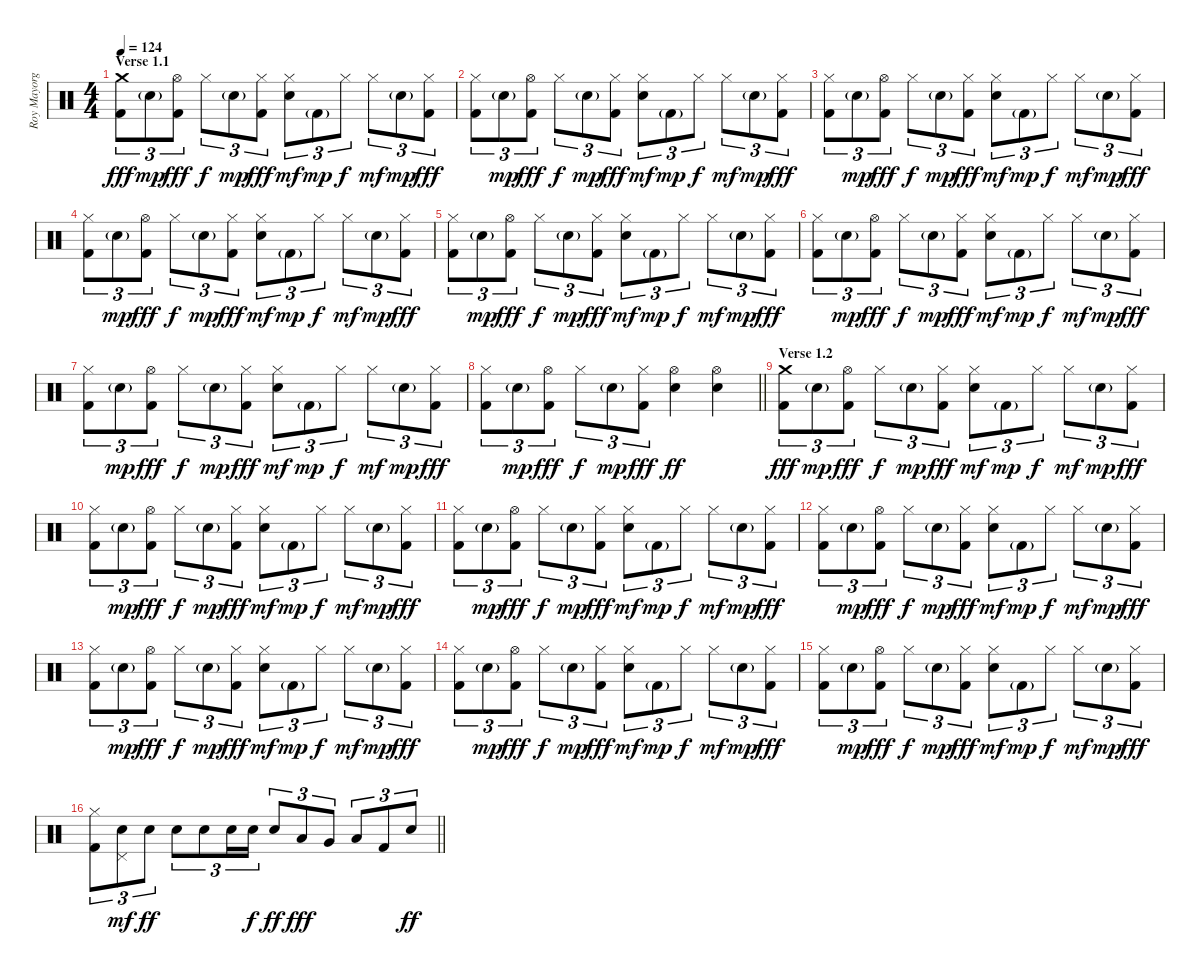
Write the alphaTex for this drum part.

\track ("Roy Mayorga" "Roy Mayorg") {instrument percussion}
\staff {score}
\articulation defaults
\ts (4 4)
\section ("" "Verse 1.1")
\tempo 124
\clef neutral
\ks c
("Crash medium (hit)" "Kick (hit) 2").8{tu (3 2) dy fff} "Electric Snare (hit)"{g}.8{tu (3 2) dy mp} ("Hi-Hat (open)" "Kick (hit) 2").8{tu (3 2) dy fff} "Hi-Hat (closed)".8{tu (3 2) dy f} "Electric Snare (hit)"{g}.8{tu (3 2) dy mp} ("Hi-Hat (closed)" "Kick (hit) 2").8{tu (3 2) dy fff} ("Hi-Hat (closed)" "Electric Snare (hit)").8{tu (3 2) dy mf} "Kick (hit) 2"{g}.8{tu (3 2) dy mp} "Hi-Hat (closed)".8{tu (3 2) dy f} "Hi-Hat (closed)".8{tu (3 2) dy mf} "Electric Snare (hit)"{g}.8{tu (3 2) dy mp} ("Hi-Hat (closed)" "Kick (hit) 2").8{tu (3 2) dy fff} |
("Hi-Hat (closed)" "Kick (hit) 2").8{tu (3 2)} "Electric Snare (hit)"{g}.8{tu (3 2) dy mp} ("Hi-Hat (open)" "Kick (hit) 2").8{tu (3 2) dy fff} "Hi-Hat (closed)".8{tu (3 2) dy f} "Electric Snare (hit)"{g}.8{tu (3 2) dy mp} ("Hi-Hat (closed)" "Kick (hit) 2").8{tu (3 2) dy fff} ("Hi-Hat (closed)" "Electric Snare (hit)").8{tu (3 2) dy mf} "Kick (hit) 2"{g}.8{tu (3 2) dy mp} "Hi-Hat (closed)".8{tu (3 2) dy f} "Hi-Hat (closed)".8{tu (3 2) dy mf} "Electric Snare (hit)"{g}.8{tu (3 2) dy mp} ("Hi-Hat (closed)" "Kick (hit) 2").8{tu (3 2) dy fff} |
("Hi-Hat (closed)" "Kick (hit) 2").8{tu (3 2)} "Electric Snare (hit)"{g}.8{tu (3 2) dy mp} ("Hi-Hat (open)" "Kick (hit) 2").8{tu (3 2) dy fff} "Hi-Hat (closed)".8{tu (3 2) dy f} "Electric Snare (hit)"{g}.8{tu (3 2) dy mp} ("Hi-Hat (closed)" "Kick (hit) 2").8{tu (3 2) dy fff} ("Hi-Hat (closed)" "Electric Snare (hit)").8{tu (3 2) dy mf} "Kick (hit) 2"{g}.8{tu (3 2) dy mp} "Hi-Hat (closed)".8{tu (3 2) dy f} "Hi-Hat (closed)".8{tu (3 2) dy mf} "Electric Snare (hit)"{g}.8{tu (3 2) dy mp} ("Hi-Hat (closed)" "Kick (hit) 2").8{tu (3 2) dy fff} |
("Hi-Hat (closed)" "Kick (hit) 2").8{tu (3 2)} "Electric Snare (hit)"{g}.8{tu (3 2) dy mp} ("Hi-Hat (open)" "Kick (hit) 2").8{tu (3 2) dy fff} "Hi-Hat (closed)".8{tu (3 2) dy f} "Electric Snare (hit)"{g}.8{tu (3 2) dy mp} ("Hi-Hat (closed)" "Kick (hit) 2").8{tu (3 2) dy fff} ("Hi-Hat (closed)" "Electric Snare (hit)").8{tu (3 2) dy mf} "Kick (hit) 2"{g}.8{tu (3 2) dy mp} "Hi-Hat (closed)".8{tu (3 2) dy f} "Hi-Hat (closed)".8{tu (3 2) dy mf} "Electric Snare (hit)"{g}.8{tu (3 2) dy mp} ("Hi-Hat (closed)" "Kick (hit) 2").8{tu (3 2) dy fff} |
("Hi-Hat (closed)" "Kick (hit) 2").8{tu (3 2)} "Electric Snare (hit)"{g}.8{tu (3 2) dy mp} ("Hi-Hat (open)" "Kick (hit) 2").8{tu (3 2) dy fff} "Hi-Hat (closed)".8{tu (3 2) dy f} "Electric Snare (hit)"{g}.8{tu (3 2) dy mp} ("Hi-Hat (closed)" "Kick (hit) 2").8{tu (3 2) dy fff} ("Hi-Hat (closed)" "Electric Snare (hit)").8{tu (3 2) dy mf} "Kick (hit) 2"{g}.8{tu (3 2) dy mp} "Hi-Hat (closed)".8{tu (3 2) dy f} "Hi-Hat (closed)".8{tu (3 2) dy mf} "Electric Snare (hit)"{g}.8{tu (3 2) dy mp} ("Hi-Hat (closed)" "Kick (hit) 2").8{tu (3 2) dy fff} |
("Hi-Hat (closed)" "Kick (hit) 2").8{tu (3 2)} "Electric Snare (hit)"{g}.8{tu (3 2) dy mp} ("Hi-Hat (open)" "Kick (hit) 2").8{tu (3 2) dy fff} "Hi-Hat (closed)".8{tu (3 2) dy f} "Electric Snare (hit)"{g}.8{tu (3 2) dy mp} ("Hi-Hat (closed)" "Kick (hit) 2").8{tu (3 2) dy fff} ("Hi-Hat (closed)" "Electric Snare (hit)").8{tu (3 2) dy mf} "Kick (hit) 2"{g}.8{tu (3 2) dy mp} "Hi-Hat (closed)".8{tu (3 2) dy f} "Hi-Hat (closed)".8{tu (3 2) dy mf} "Electric Snare (hit)"{g}.8{tu (3 2) dy mp} ("Hi-Hat (closed)" "Kick (hit) 2").8{tu (3 2) dy fff} |
("Hi-Hat (closed)" "Kick (hit) 2").8{tu (3 2)} "Electric Snare (hit)"{g}.8{tu (3 2) dy mp} ("Hi-Hat (open)" "Kick (hit) 2").8{tu (3 2) dy fff} "Hi-Hat (closed)".8{tu (3 2) dy f} "Electric Snare (hit)"{g}.8{tu (3 2) dy mp} ("Hi-Hat (closed)" "Kick (hit) 2").8{tu (3 2) dy fff} ("Hi-Hat (closed)" "Electric Snare (hit)").8{tu (3 2) dy mf} "Kick (hit) 2"{g}.8{tu (3 2) dy mp} "Hi-Hat (closed)".8{tu (3 2) dy f} "Hi-Hat (closed)".8{tu (3 2) dy mf} "Electric Snare (hit)"{g}.8{tu (3 2) dy mp} ("Hi-Hat (closed)" "Kick (hit) 2").8{tu (3 2) dy fff} |
\barLineRight lightlight
("Hi-Hat (closed)" "Kick (hit) 2").8{tu (3 2)} "Electric Snare (hit)"{g}.8{tu (3 2) dy mp} ("Hi-Hat (open)" "Kick (hit) 2").8{tu (3 2) dy fff} "Hi-Hat (closed)".8{tu (3 2) dy f} "Electric Snare (hit)"{g}.8{tu (3 2) dy mp} ("Hi-Hat (closed)" "Kick (hit) 2").8{tu (3 2) dy fff} ("Hi-Hat (open)" "Electric Snare (hit)").4{dy ff} ("Hi-Hat (open)" "Electric Snare (hit)").4 |
\section ("" "Verse 1.2")
("Crash medium (hit)" "Kick (hit) 2").8{tu (3 2) dy fff} "Electric Snare (hit)"{g}.8{tu (3 2) dy mp} ("Hi-Hat (open)" "Kick (hit) 2").8{tu (3 2) dy fff} "Hi-Hat (closed)".8{tu (3 2) dy f} "Electric Snare (hit)"{g}.8{tu (3 2) dy mp} ("Hi-Hat (closed)" "Kick (hit) 2").8{tu (3 2) dy fff} ("Hi-Hat (closed)" "Electric Snare (hit)").8{tu (3 2) dy mf} "Kick (hit) 2"{g}.8{tu (3 2) dy mp} "Hi-Hat (closed)".8{tu (3 2) dy f} "Hi-Hat (closed)".8{tu (3 2) dy mf} "Electric Snare (hit)"{g}.8{tu (3 2) dy mp} ("Hi-Hat (closed)" "Kick (hit) 2").8{tu (3 2) dy fff} |
("Hi-Hat (closed)" "Kick (hit) 2").8{tu (3 2)} "Electric Snare (hit)"{g}.8{tu (3 2) dy mp} ("Hi-Hat (open)" "Kick (hit) 2").8{tu (3 2) dy fff} "Hi-Hat (closed)".8{tu (3 2) dy f} "Electric Snare (hit)"{g}.8{tu (3 2) dy mp} ("Hi-Hat (closed)" "Kick (hit) 2").8{tu (3 2) dy fff} ("Hi-Hat (closed)" "Electric Snare (hit)").8{tu (3 2) dy mf} "Kick (hit) 2"{g}.8{tu (3 2) dy mp} "Hi-Hat (closed)".8{tu (3 2) dy f} "Hi-Hat (closed)".8{tu (3 2) dy mf} "Electric Snare (hit)"{g}.8{tu (3 2) dy mp} ("Hi-Hat (closed)" "Kick (hit) 2").8{tu (3 2) dy fff} |
("Hi-Hat (closed)" "Kick (hit) 2").8{tu (3 2)} "Electric Snare (hit)"{g}.8{tu (3 2) dy mp} ("Hi-Hat (open)" "Kick (hit) 2").8{tu (3 2) dy fff} "Hi-Hat (closed)".8{tu (3 2) dy f} "Electric Snare (hit)"{g}.8{tu (3 2) dy mp} ("Hi-Hat (closed)" "Kick (hit) 2").8{tu (3 2) dy fff} ("Hi-Hat (closed)" "Electric Snare (hit)").8{tu (3 2) dy mf} "Kick (hit) 2"{g}.8{tu (3 2) dy mp} "Hi-Hat (closed)".8{tu (3 2) dy f} "Hi-Hat (closed)".8{tu (3 2) dy mf} "Electric Snare (hit)"{g}.8{tu (3 2) dy mp} ("Hi-Hat (closed)" "Kick (hit) 2").8{tu (3 2) dy fff} |
("Hi-Hat (closed)" "Kick (hit) 2").8{tu (3 2)} "Electric Snare (hit)"{g}.8{tu (3 2) dy mp} ("Hi-Hat (open)" "Kick (hit) 2").8{tu (3 2) dy fff} "Hi-Hat (closed)".8{tu (3 2) dy f} "Electric Snare (hit)"{g}.8{tu (3 2) dy mp} ("Hi-Hat (closed)" "Kick (hit) 2").8{tu (3 2) dy fff} ("Hi-Hat (closed)" "Electric Snare (hit)").8{tu (3 2) dy mf} "Kick (hit) 2"{g}.8{tu (3 2) dy mp} "Hi-Hat (closed)".8{tu (3 2) dy f} "Hi-Hat (closed)".8{tu (3 2) dy mf} "Electric Snare (hit)"{g}.8{tu (3 2) dy mp} ("Hi-Hat (closed)" "Kick (hit) 2").8{tu (3 2) dy fff} |
("Hi-Hat (closed)" "Kick (hit) 2").8{tu (3 2)} "Electric Snare (hit)"{g}.8{tu (3 2) dy mp} ("Hi-Hat (open)" "Kick (hit) 2").8{tu (3 2) dy fff} "Hi-Hat (closed)".8{tu (3 2) dy f} "Electric Snare (hit)"{g}.8{tu (3 2) dy mp} ("Hi-Hat (closed)" "Kick (hit) 2").8{tu (3 2) dy fff} ("Hi-Hat (closed)" "Electric Snare (hit)").8{tu (3 2) dy mf} "Kick (hit) 2"{g}.8{tu (3 2) dy mp} "Hi-Hat (closed)".8{tu (3 2) dy f} "Hi-Hat (closed)".8{tu (3 2) dy mf} "Electric Snare (hit)"{g}.8{tu (3 2) dy mp} ("Hi-Hat (closed)" "Kick (hit) 2").8{tu (3 2) dy fff} |
("Hi-Hat (closed)" "Kick (hit) 2").8{tu (3 2)} "Electric Snare (hit)"{g}.8{tu (3 2) dy mp} ("Hi-Hat (open)" "Kick (hit) 2").8{tu (3 2) dy fff} "Hi-Hat (closed)".8{tu (3 2) dy f} "Electric Snare (hit)"{g}.8{tu (3 2) dy mp} ("Hi-Hat (closed)" "Kick (hit) 2").8{tu (3 2) dy fff} ("Hi-Hat (closed)" "Electric Snare (hit)").8{tu (3 2) dy mf} "Kick (hit) 2"{g}.8{tu (3 2) dy mp} "Hi-Hat (closed)".8{tu (3 2) dy f} "Hi-Hat (closed)".8{tu (3 2) dy mf} "Electric Snare (hit)"{g}.8{tu (3 2) dy mp} ("Hi-Hat (closed)" "Kick (hit) 2").8{tu (3 2) dy fff} |
("Hi-Hat (closed)" "Kick (hit) 2").8{tu (3 2)} "Electric Snare (hit)"{g}.8{tu (3 2) dy mp} ("Hi-Hat (open)" "Kick (hit) 2").8{tu (3 2) dy fff} "Hi-Hat (closed)".8{tu (3 2) dy f} "Electric Snare (hit)"{g}.8{tu (3 2) dy mp} ("Hi-Hat (closed)" "Kick (hit) 2").8{tu (3 2) dy fff} ("Hi-Hat (closed)" "Electric Snare (hit)").8{tu (3 2) dy mf} "Kick (hit) 2"{g}.8{tu (3 2) dy mp} "Hi-Hat (closed)".8{tu (3 2) dy f} "Hi-Hat (closed)".8{tu (3 2) dy mf} "Electric Snare (hit)"{g}.8{tu (3 2) dy mp} ("Hi-Hat (closed)" "Kick (hit) 2").8{tu (3 2) dy fff} |
\barLineRight lightlight
("Hi-Hat (closed)" "Kick (hit) 2").8{tu (3 2)} ("Electric Snare (hit)" "Pedal Hi-Hat (hit)").8{tu (3 2) dy mf} "Electric Snare (hit)".8{tu (3 2) dy ff} "Electric Snare (hit)".8{tu (3 2)} "Electric Snare (hit)".8{tu (3 2)} "Electric Snare (hit)".16{tu (3 2)} "Electric Snare (hit)".16{tu (3 2) dy f} "Electric Snare (hit)".8{tu (3 2) dy ff} "Low Tom (hit)".8{tu (3 2) dy fff} "Very Low Tom (hit)".8{tu (3 2)} "Low Floor Tom (hit)".8{tu (3 2)} "Kick (hit) 2".8{tu (3 2)} "Electric Snare (hit)".8{tu (3 2) dy ff}
